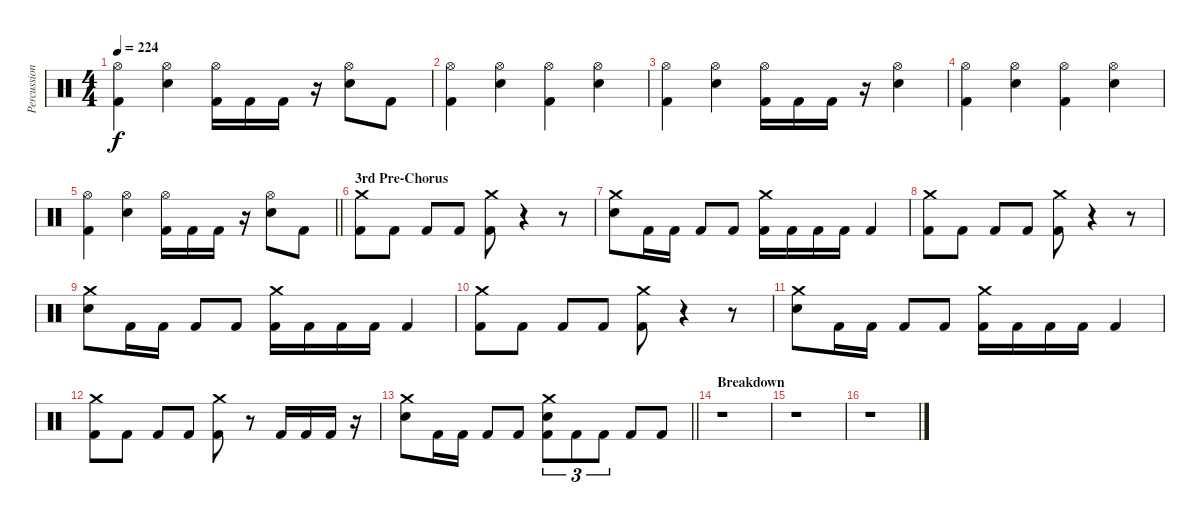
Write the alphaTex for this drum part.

\track ("Percussion" "Percussion") {instrument percussion}
\staff {score}
\articulation defaults
\ts (4 4)
\tempo 224
\clef neutral
\ks c
("Kick (hit) 2" "Hi-Hat (open)").4{dy f} ("Snare (hit) 2" "Hi-Hat (open)").4 ("Kick (hit) 2" "Hi-Hat (open)").16 "Kick (hit) 2".16 "Kick (hit) 2".16 r.16 ("Snare (hit) 2" "Hi-Hat (open)").8 "Kick (hit) 2".8 |
("Kick (hit) 2" "Hi-Hat (open)").4 ("Snare (hit) 2" "Hi-Hat (open)").4 ("Kick (hit) 2" "Hi-Hat (open)").4 ("Snare (hit) 2" "Hi-Hat (open)").4 |
("Kick (hit) 2" "Hi-Hat (open)").4 ("Snare (hit) 2" "Hi-Hat (open)").4 ("Kick (hit) 2" "Hi-Hat (open)").16 "Kick (hit) 2".16 "Kick (hit) 2".16 r.16 ("Snare (hit) 2" "Hi-Hat (open)").4 |
("Kick (hit) 2" "Hi-Hat (open)").4 ("Snare (hit) 2" "Hi-Hat (open)").4 ("Kick (hit) 2" "Hi-Hat (open)").4 ("Snare (hit) 2" "Hi-Hat (open)").4 |
\barLineRight lightlight
("Kick (hit) 2" "Hi-Hat (open)").4 ("Snare (hit) 2" "Hi-Hat (open)").4 ("Kick (hit) 2" "Hi-Hat (open)").16 "Kick (hit) 2".16 "Kick (hit) 2".16 r.16 ("Snare (hit) 2" "Hi-Hat (open)").8 "Kick (hit) 2".8 |
\section ("" "3rd Pre-Chorus")
("Kick (hit) 2" "Crash medium (hit)").8 "Kick (hit) 2".8 "Kick (hit) 2".8 "Kick (hit) 2".8 ("Kick (hit) 2" "Crash medium (hit)").8 r.4 r.8 |
("Snare (hit) 2" "Crash medium (hit)").8 "Kick (hit) 2".16 "Kick (hit) 2".16 "Kick (hit) 2".8 "Kick (hit) 2".8 ("Kick (hit) 2" "Crash medium (hit)").16 "Kick (hit) 2".16 "Kick (hit) 2".16 "Kick (hit) 2".16 "Kick (hit) 2".4 |
("Kick (hit) 2" "Crash medium (hit)").8 "Kick (hit) 2".8 "Kick (hit) 2".8 "Kick (hit) 2".8 ("Kick (hit) 2" "Crash medium (hit)").8 r.4 r.8 |
("Snare (hit) 2" "Crash medium (hit)").8 "Kick (hit) 2".16 "Kick (hit) 2".16 "Kick (hit) 2".8 "Kick (hit) 2".8 ("Kick (hit) 2" "Crash medium (hit)").16 "Kick (hit) 2".16 "Kick (hit) 2".16 "Kick (hit) 2".16 "Kick (hit) 2".4 |
("Kick (hit) 2" "Crash medium (hit)").8 "Kick (hit) 2".8 "Kick (hit) 2".8 "Kick (hit) 2".8 ("Kick (hit) 2" "Crash medium (hit)").8 r.4 r.8 |
("Snare (hit) 2" "Crash medium (hit)").8 "Kick (hit) 2".16 "Kick (hit) 2".16 "Kick (hit) 2".8 "Kick (hit) 2".8 ("Kick (hit) 2" "Crash medium (hit)").16 "Kick (hit) 2".16 "Kick (hit) 2".16 "Kick (hit) 2".16 "Kick (hit) 2".4 |
("Kick (hit) 2" "Crash medium (hit)").8 "Kick (hit) 2".8 "Kick (hit) 2".8 "Kick (hit) 2".8 ("Kick (hit) 2" "Crash medium (hit)").8 r.8 "Kick (hit) 2".16 "Kick (hit) 2".16 "Kick (hit) 2".16 r.16 |
\barLineRight lightlight
("Snare (hit) 2" "Crash medium (hit)").8 "Kick (hit) 2".16 "Kick (hit) 2".16 "Kick (hit) 2".8 "Kick (hit) 2".8 ("Kick (hit) 2" "Snare (hit) 2" "Crash medium (hit)").8{tu (3 2)} "Kick (hit) 2".8{tu (3 2)} "Kick (hit) 2".8{tu (3 2)} "Kick (hit) 2".8 "Kick (hit) 2".8 |
\section ("" "Breakdown")
r.1 |
r.1 |
r.1
